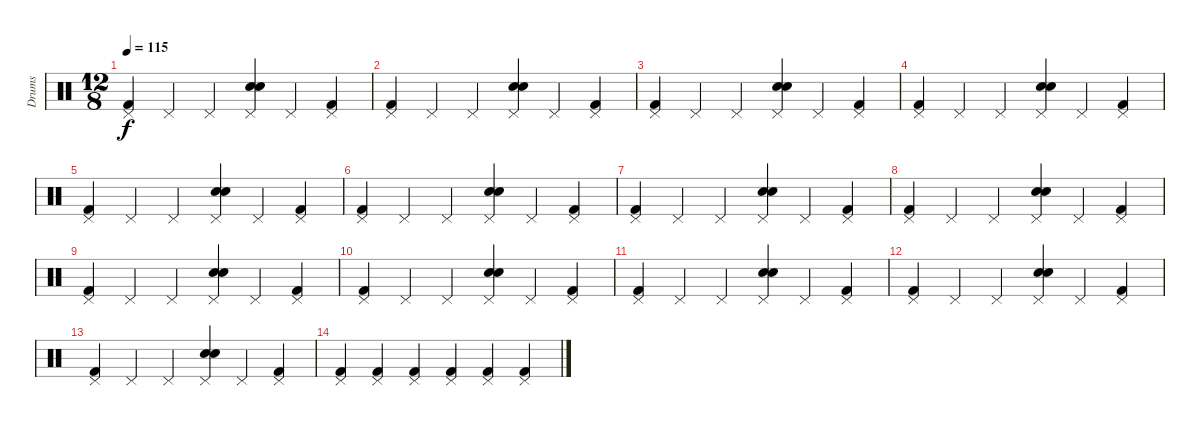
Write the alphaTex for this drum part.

\track ("Drums" "Drums") {instrument percussion}
\staff {score}
\articulation defaults
\ts (12 8)
\tempo 115
\clef neutral
\ks c
("Kick (hit) 2" "Pedal Hi-Hat (hit)").4{dy f} "Pedal Hi-Hat (hit)".4 "Pedal Hi-Hat (hit)".4 ("Electric Snare (hit)" "Snare (hit) 2" "Pedal Hi-Hat (hit)").4 "Pedal Hi-Hat (hit)".4 ("Kick (hit) 2" "Pedal Hi-Hat (hit)").4 |
("Kick (hit) 2" "Pedal Hi-Hat (hit)").4 "Pedal Hi-Hat (hit)".4 "Pedal Hi-Hat (hit)".4 ("Electric Snare (hit)" "Snare (hit) 2" "Pedal Hi-Hat (hit)").4 "Pedal Hi-Hat (hit)".4 ("Kick (hit) 2" "Pedal Hi-Hat (hit)").4 |
("Kick (hit) 2" "Pedal Hi-Hat (hit)").4 "Pedal Hi-Hat (hit)".4 "Pedal Hi-Hat (hit)".4 ("Electric Snare (hit)" "Snare (hit) 2" "Pedal Hi-Hat (hit)").4 "Pedal Hi-Hat (hit)".4 ("Kick (hit) 2" "Pedal Hi-Hat (hit)").4 |
("Kick (hit) 2" "Pedal Hi-Hat (hit)").4 "Pedal Hi-Hat (hit)".4 "Pedal Hi-Hat (hit)".4 ("Electric Snare (hit)" "Snare (hit) 2" "Pedal Hi-Hat (hit)").4 "Pedal Hi-Hat (hit)".4 ("Kick (hit) 2" "Pedal Hi-Hat (hit)").4 |
("Kick (hit) 2" "Pedal Hi-Hat (hit)").4 "Pedal Hi-Hat (hit)".4 "Pedal Hi-Hat (hit)".4 ("Electric Snare (hit)" "Snare (hit) 2" "Pedal Hi-Hat (hit)").4 "Pedal Hi-Hat (hit)".4 ("Kick (hit) 2" "Pedal Hi-Hat (hit)").4 |
("Kick (hit) 2" "Pedal Hi-Hat (hit)").4 "Pedal Hi-Hat (hit)".4 "Pedal Hi-Hat (hit)".4 ("Electric Snare (hit)" "Snare (hit) 2" "Pedal Hi-Hat (hit)").4 "Pedal Hi-Hat (hit)".4 ("Kick (hit) 2" "Pedal Hi-Hat (hit)").4 |
("Kick (hit) 2" "Pedal Hi-Hat (hit)").4 "Pedal Hi-Hat (hit)".4 "Pedal Hi-Hat (hit)".4 ("Electric Snare (hit)" "Snare (hit) 2" "Pedal Hi-Hat (hit)").4 "Pedal Hi-Hat (hit)".4 ("Kick (hit) 2" "Pedal Hi-Hat (hit)").4 |
("Kick (hit) 2" "Pedal Hi-Hat (hit)").4 "Pedal Hi-Hat (hit)".4 "Pedal Hi-Hat (hit)".4 ("Electric Snare (hit)" "Snare (hit) 2" "Pedal Hi-Hat (hit)").4 "Pedal Hi-Hat (hit)".4 ("Kick (hit) 2" "Pedal Hi-Hat (hit)").4 |
("Kick (hit) 2" "Pedal Hi-Hat (hit)").4 "Pedal Hi-Hat (hit)".4 "Pedal Hi-Hat (hit)".4 ("Electric Snare (hit)" "Snare (hit) 2" "Pedal Hi-Hat (hit)").4 "Pedal Hi-Hat (hit)".4 ("Kick (hit) 2" "Pedal Hi-Hat (hit)").4 |
("Kick (hit) 2" "Pedal Hi-Hat (hit)").4 "Pedal Hi-Hat (hit)".4 "Pedal Hi-Hat (hit)".4 ("Electric Snare (hit)" "Snare (hit) 2" "Pedal Hi-Hat (hit)").4 "Pedal Hi-Hat (hit)".4 ("Kick (hit) 2" "Pedal Hi-Hat (hit)").4 |
("Kick (hit) 2" "Pedal Hi-Hat (hit)").4 "Pedal Hi-Hat (hit)".4 "Pedal Hi-Hat (hit)".4 ("Electric Snare (hit)" "Snare (hit) 2" "Pedal Hi-Hat (hit)").4 "Pedal Hi-Hat (hit)".4 ("Kick (hit) 2" "Pedal Hi-Hat (hit)").4 |
("Kick (hit) 2" "Pedal Hi-Hat (hit)").4 "Pedal Hi-Hat (hit)".4 "Pedal Hi-Hat (hit)".4 ("Electric Snare (hit)" "Snare (hit) 2" "Pedal Hi-Hat (hit)").4 "Pedal Hi-Hat (hit)".4 ("Kick (hit) 2" "Pedal Hi-Hat (hit)").4 |
("Kick (hit) 2" "Pedal Hi-Hat (hit)").4 "Pedal Hi-Hat (hit)".4 "Pedal Hi-Hat (hit)".4 ("Electric Snare (hit)" "Snare (hit) 2" "Pedal Hi-Hat (hit)").4 "Pedal Hi-Hat (hit)".4 ("Kick (hit) 2" "Pedal Hi-Hat (hit)").4 |
("Kick (hit) 2" "Pedal Hi-Hat (hit)").4 ("Kick (hit) 2" "Pedal Hi-Hat (hit)").4 ("Kick (hit) 2" "Pedal Hi-Hat (hit)").4 ("Kick (hit) 2" "Pedal Hi-Hat (hit)").4 ("Kick (hit) 2" "Pedal Hi-Hat (hit)").4 ("Kick (hit) 2" "Pedal Hi-Hat (hit)").4
